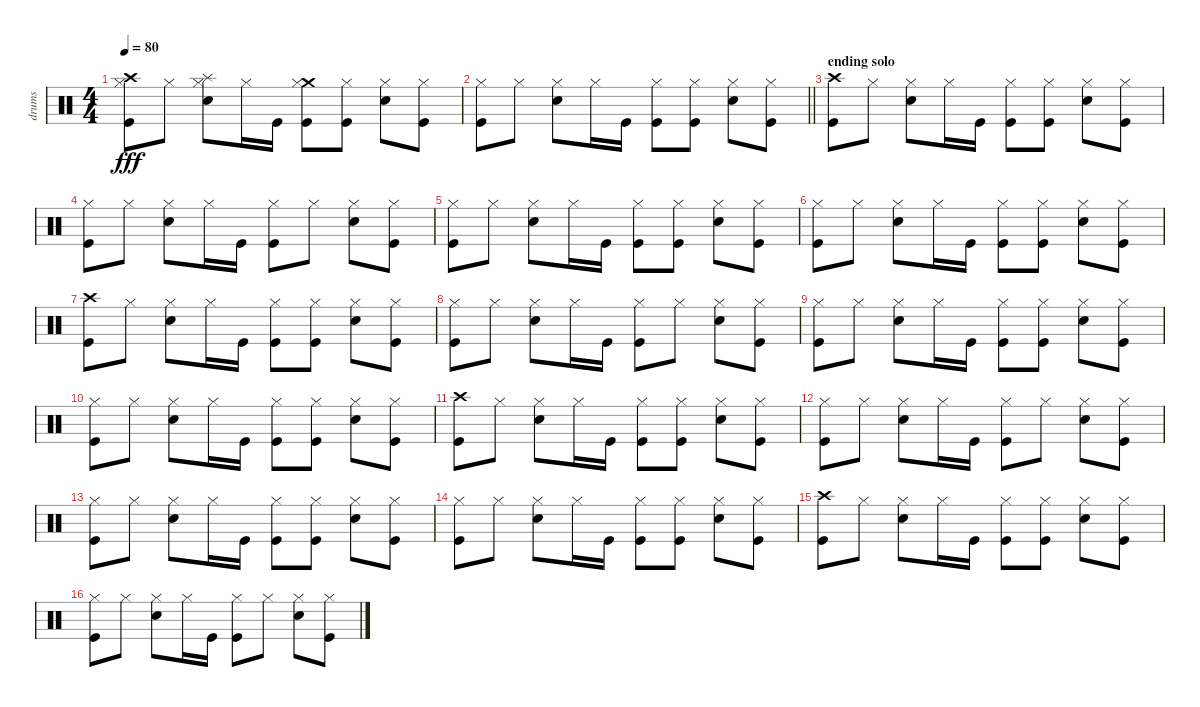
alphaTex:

\track ("drums" "drums") {instrument percussion}
\staff {score}
\articulation defaults
\ts (4 4)
\tempo 80
\clef neutral
\ks c
("Crash high (hit)" "Hi-Hat (closed)" "Kick (hit)").8{dy fff} "Hi-Hat (closed)".8 ("Splash (hit)" "Hi-Hat (closed)" "Snare (hit) 2").8 "Hi-Hat (closed)".16 "Kick (hit)".16 ("Crash medium (hit)" "Hi-Hat (closed)" "Kick (hit)").8 ("Hi-Hat (closed)" "Kick (hit)").8 ("Hi-Hat (closed)" "Snare (hit) 2").8 ("Hi-Hat (closed)" "Kick (hit)").8 |
\barLineRight lightlight
("Hi-Hat (closed)" "Kick (hit)").8 "Hi-Hat (closed)".8 ("Hi-Hat (closed)" "Snare (hit) 2").8 "Hi-Hat (closed)".16 "Kick (hit)".16 ("Hi-Hat (closed)" "Kick (hit)").8 ("Hi-Hat (closed)" "Kick (hit)").8 ("Hi-Hat (closed)" "Snare (hit) 2").8 ("Hi-Hat (closed)" "Kick (hit)").8 |
\section ("" "ending solo")
("Crash high (hit)" "Kick (hit)").8 "Hi-Hat (closed)".8 ("Hi-Hat (closed)" "Snare (hit) 2").8 "Hi-Hat (closed)".16 "Kick (hit)".16 ("Hi-Hat (closed)" "Kick (hit)").8 ("Hi-Hat (closed)" "Kick (hit)").8 ("Hi-Hat (closed)" "Snare (hit) 2").8 ("Hi-Hat (closed)" "Kick (hit)").8 |
("Hi-Hat (closed)" "Kick (hit)").8 "Hi-Hat (closed)".8 ("Hi-Hat (closed)" "Snare (hit) 2").8 "Hi-Hat (closed)".16 "Kick (hit)".16 ("Hi-Hat (closed)" "Kick (hit)").8 "Hi-Hat (closed)".8 ("Hi-Hat (closed)" "Snare (hit) 2").8 ("Hi-Hat (closed)" "Kick (hit)").8 |
("Hi-Hat (closed)" "Kick (hit)").8 "Hi-Hat (closed)".8 ("Hi-Hat (closed)" "Snare (hit) 2").8 "Hi-Hat (closed)".16 "Kick (hit)".16 ("Hi-Hat (closed)" "Kick (hit)").8 ("Hi-Hat (closed)" "Kick (hit)").8 ("Hi-Hat (closed)" "Snare (hit) 2").8 ("Hi-Hat (closed)" "Kick (hit)").8 |
("Hi-Hat (closed)" "Kick (hit)").8 "Hi-Hat (closed)".8 ("Hi-Hat (closed)" "Snare (hit) 2").8 "Hi-Hat (closed)".16 "Kick (hit)".16 ("Hi-Hat (closed)" "Kick (hit)").8 ("Hi-Hat (closed)" "Kick (hit)").8 ("Hi-Hat (closed)" "Snare (hit) 2").8 ("Hi-Hat (closed)" "Kick (hit)").8 |
("Crash high (hit)" "Kick (hit)").8 "Hi-Hat (closed)".8 ("Hi-Hat (closed)" "Snare (hit) 2").8 "Hi-Hat (closed)".16 "Kick (hit)".16 ("Hi-Hat (closed)" "Kick (hit)").8 ("Hi-Hat (closed)" "Kick (hit)").8 ("Hi-Hat (closed)" "Snare (hit) 2").8 ("Hi-Hat (closed)" "Kick (hit)").8 |
("Hi-Hat (closed)" "Kick (hit)").8 "Hi-Hat (closed)".8 ("Hi-Hat (closed)" "Snare (hit) 2").8 "Hi-Hat (closed)".16 "Kick (hit)".16 ("Hi-Hat (closed)" "Kick (hit)").8 "Hi-Hat (closed)".8 ("Hi-Hat (closed)" "Snare (hit) 2").8 ("Hi-Hat (closed)" "Kick (hit)").8 |
("Hi-Hat (closed)" "Kick (hit)").8 "Hi-Hat (closed)".8 ("Hi-Hat (closed)" "Snare (hit) 2").8 "Hi-Hat (closed)".16 "Kick (hit)".16 ("Hi-Hat (closed)" "Kick (hit)").8 ("Hi-Hat (closed)" "Kick (hit)").8 ("Hi-Hat (closed)" "Snare (hit) 2").8 ("Hi-Hat (closed)" "Kick (hit)").8 |
("Hi-Hat (closed)" "Kick (hit)").8 "Hi-Hat (closed)".8 ("Hi-Hat (closed)" "Snare (hit) 2").8 "Hi-Hat (closed)".16 "Kick (hit)".16 ("Hi-Hat (closed)" "Kick (hit)").8 ("Hi-Hat (closed)" "Kick (hit)").8 ("Hi-Hat (closed)" "Snare (hit) 2").8 ("Hi-Hat (closed)" "Kick (hit)").8 |
("Crash high (hit)" "Kick (hit)").8 "Hi-Hat (closed)".8 ("Hi-Hat (closed)" "Snare (hit) 2").8 "Hi-Hat (closed)".16 "Kick (hit)".16 ("Hi-Hat (closed)" "Kick (hit)").8 ("Hi-Hat (closed)" "Kick (hit)").8 ("Hi-Hat (closed)" "Snare (hit) 2").8 ("Hi-Hat (closed)" "Kick (hit)").8 |
("Hi-Hat (closed)" "Kick (hit)").8 "Hi-Hat (closed)".8 ("Hi-Hat (closed)" "Snare (hit) 2").8 "Hi-Hat (closed)".16 "Kick (hit)".16 ("Hi-Hat (closed)" "Kick (hit)").8 "Hi-Hat (closed)".8 ("Hi-Hat (closed)" "Snare (hit) 2").8 ("Hi-Hat (closed)" "Kick (hit)").8 |
("Hi-Hat (closed)" "Kick (hit)").8 "Hi-Hat (closed)".8 ("Hi-Hat (closed)" "Snare (hit) 2").8 "Hi-Hat (closed)".16 "Kick (hit)".16 ("Hi-Hat (closed)" "Kick (hit)").8 ("Hi-Hat (closed)" "Kick (hit)").8 ("Hi-Hat (closed)" "Snare (hit) 2").8 ("Hi-Hat (closed)" "Kick (hit)").8 |
("Hi-Hat (closed)" "Kick (hit)").8 "Hi-Hat (closed)".8 ("Hi-Hat (closed)" "Snare (hit) 2").8 "Hi-Hat (closed)".16 "Kick (hit)".16 ("Hi-Hat (closed)" "Kick (hit)").8 ("Hi-Hat (closed)" "Kick (hit)").8 ("Hi-Hat (closed)" "Snare (hit) 2").8 ("Hi-Hat (closed)" "Kick (hit)").8 |
("Crash high (hit)" "Kick (hit)").8 "Hi-Hat (closed)".8 ("Hi-Hat (closed)" "Snare (hit) 2").8 "Hi-Hat (closed)".16 "Kick (hit)".16 ("Hi-Hat (closed)" "Kick (hit)").8 ("Hi-Hat (closed)" "Kick (hit)").8 ("Hi-Hat (closed)" "Snare (hit) 2").8 ("Hi-Hat (closed)" "Kick (hit)").8 |
("Hi-Hat (closed)" "Kick (hit)").8 "Hi-Hat (closed)".8 ("Hi-Hat (closed)" "Snare (hit) 2").8 "Hi-Hat (closed)".16 "Kick (hit)".16 ("Hi-Hat (closed)" "Kick (hit)").8 "Hi-Hat (closed)".8 ("Hi-Hat (closed)" "Snare (hit) 2").8 ("Hi-Hat (closed)" "Kick (hit)").8
